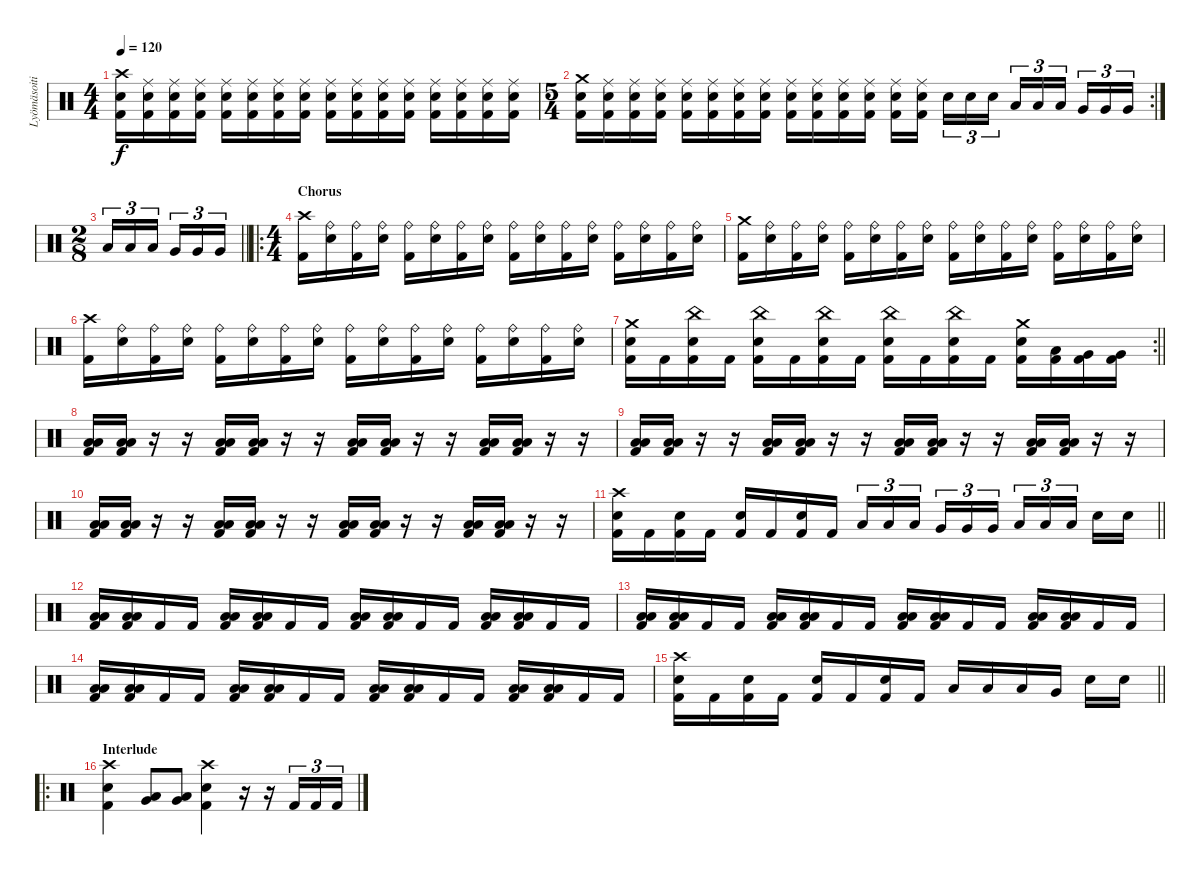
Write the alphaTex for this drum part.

\track ("Lyömäsoitin" "Lyömäsoiti") {instrument percussion}
\staff {score}
\articulation defaults
\ts (4 4)
\tempo 120
\clef neutral
\ks c
("Crash high (hit)" "Electric Snare (hit)" "Kick (hit) 2").16{dy f} ("Ride (middle)" "Electric Snare (hit)" "Kick (hit) 2").16 ("Ride (middle)" "Electric Snare (hit)" "Kick (hit) 2").16 ("Ride (middle)" "Electric Snare (hit)" "Kick (hit) 2").16 ("Ride (middle)" "Electric Snare (hit)" "Kick (hit) 2").16 ("Ride (middle)" "Electric Snare (hit)" "Kick (hit) 2").16 ("Ride (middle)" "Electric Snare (hit)" "Kick (hit) 2").16 ("Ride (middle)" "Electric Snare (hit)" "Kick (hit) 2").16 ("Ride (middle)" "Electric Snare (hit)" "Kick (hit) 2").16 ("Ride (middle)" "Electric Snare (hit)" "Kick (hit) 2").16 ("Ride (middle)" "Electric Snare (hit)" "Kick (hit) 2").16 ("Ride (middle)" "Electric Snare (hit)" "Kick (hit) 2").16 ("Ride (middle)" "Electric Snare (hit)" "Kick (hit) 2").16 ("Ride (middle)" "Electric Snare (hit)" "Kick (hit) 2").16 ("Ride (middle)" "Electric Snare (hit)" "Kick (hit) 2").16 ("Ride (middle)" "Electric Snare (hit)" "Kick (hit) 2").16 |
\rc 2
\ts (5 4)
("Crash medium (hit)" "Electric Snare (hit)" "Kick (hit) 2").16 ("Ride (middle)" "Electric Snare (hit)" "Kick (hit) 2").16 ("Ride (middle)" "Electric Snare (hit)" "Kick (hit) 2").16 ("Ride (middle)" "Electric Snare (hit)" "Kick (hit) 2").16 ("Ride (middle)" "Electric Snare (hit)" "Kick (hit) 2").16 ("Ride (middle)" "Electric Snare (hit)" "Kick (hit) 2").16 ("Ride (middle)" "Electric Snare (hit)" "Kick (hit) 2").16 ("Ride (middle)" "Electric Snare (hit)" "Kick (hit) 2").16 ("Ride (middle)" "Electric Snare (hit)" "Kick (hit) 2").16 ("Ride (middle)" "Electric Snare (hit)" "Kick (hit) 2").16 ("Ride (middle)" "Electric Snare (hit)" "Kick (hit) 2").16 ("Ride (middle)" "Electric Snare (hit)" "Kick (hit) 2").16 ("Ride (middle)" "Electric Snare (hit)" "Kick (hit) 2").16 ("Ride (middle)" "Electric Snare (hit)" "Kick (hit) 2").16{beam splitsecondary} "Electric Snare (hit)".16{tu (3 2)} "Electric Snare (hit)".16{tu (3 2)} "Electric Snare (hit)".16{tu (3 2)} "Low Tom (hit)".16{tu (3 2)} "Low Tom (hit)".16{tu (3 2)} "Low Tom (hit)".16{tu (3 2) beam splitsecondary} "Very Low Tom (hit)".16{tu (3 2)} "Very Low Tom (hit)".16{tu (3 2)} "Very Low Tom (hit)".16{tu (3 2)} |
\ts (2 8)
\barLineRight lightlight "Low Tom (hit)".16{tu (3 2)} "Low Tom (hit)".16{tu (3 2)} "Low Tom (hit)".16{tu (3 2)} "Very Low Tom (hit)".16{tu (3 2)} "Very Low Tom (hit)".16{tu (3 2)} "Very Low Tom (hit)".16{tu (3 2)}
|
\ro
\ts (4 4)
\section ("" "Chorus")
("Crash high (hit)" "Kick (hit) 2").16 ("Ride (bell)" "Electric Snare (hit)").16 ("Ride (bell)" "Kick (hit) 2").16 ("Ride (bell)" "Electric Snare (hit)").16 ("Ride (bell)" "Kick (hit) 2").16 ("Ride (bell)" "Electric Snare (hit)").16 ("Ride (bell)" "Kick (hit) 2").16 ("Ride (bell)" "Electric Snare (hit)").16 ("Ride (bell)" "Kick (hit) 2").16 ("Ride (bell)" "Electric Snare (hit)").16 ("Ride (bell)" "Kick (hit) 2").16 ("Ride (bell)" "Electric Snare (hit)").16 ("Ride (bell)" "Kick (hit) 2").16 ("Ride (bell)" "Electric Snare (hit)").16 ("Ride (bell)" "Kick (hit) 2").16 ("Ride (bell)" "Electric Snare (hit)").16 |
("Crash medium (hit)" "Kick (hit) 2").16 ("Ride (bell)" "Electric Snare (hit)").16 ("Ride (bell)" "Kick (hit) 2").16 ("Ride (bell)" "Electric Snare (hit)").16 ("Ride (bell)" "Kick (hit) 2").16 ("Ride (bell)" "Electric Snare (hit)").16 ("Ride (bell)" "Kick (hit) 2").16 ("Ride (bell)" "Electric Snare (hit)").16 ("Ride (bell)" "Kick (hit) 2").16 ("Ride (bell)" "Electric Snare (hit)").16 ("Ride (bell)" "Kick (hit) 2").16 ("Ride (bell)" "Electric Snare (hit)").16 ("Ride (bell)" "Kick (hit) 2").16 ("Ride (bell)" "Electric Snare (hit)").16 ("Ride (bell)" "Kick (hit) 2").16 ("Ride (bell)" "Electric Snare (hit)").16 |
("Crash high (hit)" "Kick (hit) 2").16 ("Ride (bell)" "Electric Snare (hit)").16 ("Ride (bell)" "Kick (hit) 2").16 ("Ride (bell)" "Electric Snare (hit)").16 ("Ride (bell)" "Kick (hit) 2").16 ("Ride (bell)" "Electric Snare (hit)").16 ("Ride (bell)" "Kick (hit) 2").16 ("Ride (bell)" "Electric Snare (hit)").16 ("Ride (bell)" "Kick (hit) 2").16 ("Ride (bell)" "Electric Snare (hit)").16 ("Ride (bell)" "Kick (hit) 2").16 ("Ride (bell)" "Electric Snare (hit)").16 ("Ride (bell)" "Kick (hit) 2").16 ("Ride (bell)" "Electric Snare (hit)").16 ("Ride (bell)" "Kick (hit) 2").16 ("Ride (bell)" "Electric Snare (hit)").16 |
\rc 2
\barLineRight lightlight
("Crash medium (hit)" "Electric Snare (hit)" "Kick (hit) 2").16 "Kick (hit) 2".16 ("China (hit)" "Electric Snare (hit)" "Kick (hit) 2").16 "Kick (hit) 2".16 ("China (hit)" "Electric Snare (hit)" "Kick (hit) 2").16 "Kick (hit) 2".16 ("China (hit)" "Electric Snare (hit)" "Kick (hit) 2").16 "Kick (hit) 2".16 ("China (hit)" "Electric Snare (hit)" "Kick (hit) 2").16 "Kick (hit) 2".16 ("China (hit)" "Electric Snare (hit)" "Kick (hit) 2").16 "Kick (hit) 2".16 ("Crash medium (hit)" "Electric Snare (hit)" "Kick (hit) 2").16 ("Low Tom (hit)" "Kick (hit) 2").16 ("Very Low Tom (hit)" "Kick (hit) 2").16 ("Very Low Tom (hit)" "Kick (hit) 2").16 |
("Low Tom (hit)" "Low Floor Tom (hit)" "Kick (hit) 2").16 ("Low Tom (hit)" "Low Floor Tom (hit)" "Kick (hit) 2").16 r.16 r.16 ("Low Tom (hit)" "Low Floor Tom (hit)" "Kick (hit) 2").16 ("Low Tom (hit)" "Low Floor Tom (hit)" "Kick (hit) 2").16 r.16 r.16 ("Low Tom (hit)" "Low Floor Tom (hit)" "Kick (hit) 2").16 ("Low Tom (hit)" "Low Floor Tom (hit)" "Kick (hit) 2").16 r.16 r.16 ("Low Tom (hit)" "Low Floor Tom (hit)" "Kick (hit) 2").16 ("Low Tom (hit)" "Low Floor Tom (hit)" "Kick (hit) 2").16 r.16 r.16 |
("Low Tom (hit)" "Low Floor Tom (hit)" "Kick (hit) 2").16 ("Low Tom (hit)" "Low Floor Tom (hit)" "Kick (hit) 2").16 r.16 r.16 ("Low Tom (hit)" "Low Floor Tom (hit)" "Kick (hit) 2").16 ("Low Tom (hit)" "Low Floor Tom (hit)" "Kick (hit) 2").16 r.16 r.16 ("Low Tom (hit)" "Low Floor Tom (hit)" "Kick (hit) 2").16 ("Low Tom (hit)" "Low Floor Tom (hit)" "Kick (hit) 2").16 r.16 r.16 ("Low Tom (hit)" "Low Floor Tom (hit)" "Kick (hit) 2").16 ("Low Tom (hit)" "Low Floor Tom (hit)" "Kick (hit) 2").16 r.16 r.16 |
("Low Tom (hit)" "Low Floor Tom (hit)" "Kick (hit) 2").16 ("Low Tom (hit)" "Low Floor Tom (hit)" "Kick (hit) 2").16 r.16 r.16 ("Low Tom (hit)" "Low Floor Tom (hit)" "Kick (hit) 2").16 ("Low Tom (hit)" "Low Floor Tom (hit)" "Kick (hit) 2").16 r.16 r.16 ("Low Tom (hit)" "Low Floor Tom (hit)" "Kick (hit) 2").16 ("Low Tom (hit)" "Low Floor Tom (hit)" "Kick (hit) 2").16 r.16 r.16 ("Low Tom (hit)" "Low Floor Tom (hit)" "Kick (hit) 2").16 ("Low Tom (hit)" "Low Floor Tom (hit)" "Kick (hit) 2").16 r.16 r.16 |
\barLineRight lightlight
("Crash high (hit)" "Electric Snare (hit)" "Kick (hit) 2").16 "Kick (hit) 2".16 ("Electric Snare (hit)" "Kick (hit) 2").16 "Kick (hit) 2".16 ("Electric Snare (hit)" "Kick (hit) 2").16 "Kick (hit) 2".16 ("Electric Snare (hit)" "Kick (hit) 2").16 "Kick (hit) 2".16 "Low Tom (hit)".16{tu (3 2)} "Low Tom (hit)".16{tu (3 2)} "Low Tom (hit)".16{tu (3 2) beam splitsecondary} "Very Low Tom (hit)".16{tu (3 2)} "Very Low Tom (hit)".16{tu (3 2)} "Very Low Tom (hit)".16{tu (3 2)} "Low Floor Tom (hit)".16{tu (3 2)} "Low Floor Tom (hit)".16{tu (3 2)} "Low Floor Tom (hit)".16{tu (3 2) beam splitsecondary} "Electric Snare (hit)".16 "Electric Snare (hit)".16 |
("Low Tom (hit)" "Low Floor Tom (hit)" "Kick (hit) 2").16 ("Low Tom (hit)" "Low Floor Tom (hit)" "Kick (hit) 2").16 "Kick (hit) 2".16 "Kick (hit) 2".16 ("Low Tom (hit)" "Low Floor Tom (hit)" "Kick (hit) 2").16 ("Low Tom (hit)" "Low Floor Tom (hit)" "Kick (hit) 2").16 "Kick (hit) 2".16 "Kick (hit) 2".16 ("Low Tom (hit)" "Low Floor Tom (hit)" "Kick (hit) 2").16 ("Low Tom (hit)" "Low Floor Tom (hit)" "Kick (hit) 2").16 "Kick (hit) 2".16 "Kick (hit) 2".16 ("Low Tom (hit)" "Low Floor Tom (hit)" "Kick (hit) 2").16 ("Low Tom (hit)" "Low Floor Tom (hit)" "Kick (hit) 2").16 "Kick (hit) 2".16 "Kick (hit) 2".16 |
("Low Tom (hit)" "Low Floor Tom (hit)" "Kick (hit) 2").16 ("Low Tom (hit)" "Low Floor Tom (hit)" "Kick (hit) 2").16 "Kick (hit) 2".16 "Kick (hit) 2".16 ("Low Tom (hit)" "Low Floor Tom (hit)" "Kick (hit) 2").16 ("Low Tom (hit)" "Low Floor Tom (hit)" "Kick (hit) 2").16 "Kick (hit) 2".16 "Kick (hit) 2".16 ("Low Tom (hit)" "Low Floor Tom (hit)" "Kick (hit) 2").16 ("Low Tom (hit)" "Low Floor Tom (hit)" "Kick (hit) 2").16 "Kick (hit) 2".16 "Kick (hit) 2".16 ("Low Tom (hit)" "Low Floor Tom (hit)" "Kick (hit) 2").16 ("Low Tom (hit)" "Low Floor Tom (hit)" "Kick (hit) 2").16 "Kick (hit) 2".16 "Kick (hit) 2".16 |
("Low Tom (hit)" "Low Floor Tom (hit)" "Kick (hit) 2").16 ("Low Tom (hit)" "Low Floor Tom (hit)" "Kick (hit) 2").16 "Kick (hit) 2".16 "Kick (hit) 2".16 ("Low Tom (hit)" "Low Floor Tom (hit)" "Kick (hit) 2").16 ("Low Tom (hit)" "Low Floor Tom (hit)" "Kick (hit) 2").16 "Kick (hit) 2".16 "Kick (hit) 2".16 ("Low Tom (hit)" "Low Floor Tom (hit)" "Kick (hit) 2").16 ("Low Tom (hit)" "Low Floor Tom (hit)" "Kick (hit) 2").16 "Kick (hit) 2".16 "Kick (hit) 2".16 ("Low Tom (hit)" "Low Floor Tom (hit)" "Kick (hit) 2").16 ("Low Tom (hit)" "Low Floor Tom (hit)" "Kick (hit) 2").16 "Kick (hit) 2".16 "Kick (hit) 2".16 |
\barLineRight lightlight
("Crash high (hit)" "Electric Snare (hit)" "Kick (hit) 2").16 "Kick (hit) 2".16 ("Electric Snare (hit)" "Kick (hit) 2").16 "Kick (hit) 2".16 ("Electric Snare (hit)" "Kick (hit) 2").16 "Kick (hit) 2".16 ("Electric Snare (hit)" "Kick (hit) 2").16 "Kick (hit) 2".16 "Low Tom (hit)".16 "Low Tom (hit)".16 "Low Tom (hit)".16 "Very Low Tom (hit)".16 "Electric Snare (hit)".16 "Electric Snare (hit)".16 |
\ro
\section ("" "Interlude")
("Crash high (hit)" "Electric Snare (hit)" "Kick (hit) 2").4 ("Low Tom (hit)" "Very Low Tom (hit)").8 ("Very Low Tom (hit)" "Low Floor Tom (hit)").8 ("Crash high (hit)" "Electric Snare (hit)" "Kick (hit) 2").4 r.16 r.16 "Kick (hit) 2".16{tu (3 2)} "Kick (hit) 2".16{tu (3 2)} "Kick (hit) 2".16{tu (3 2)}
